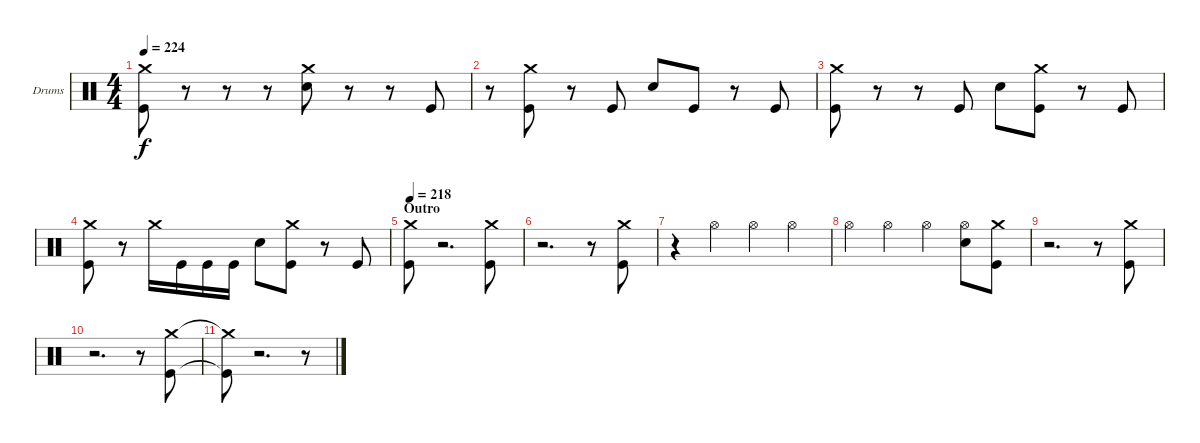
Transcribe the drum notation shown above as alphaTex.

\bracketExtendMode groupsimilarinstruments
\firstSystemTrackNameOrientation horizontal
\otherSystemsTrackNameOrientation horizontal
\track ("Drumkit" "Drums") {instrument percussion}
\staff {score}
\articulation defaults
\ts (4 4)
\tempo 224
\clef neutral
\ks c
("Crash medium (hit)" "Kick (hit)").8{dy f} r.8 r.8 r.8 ("Crash medium (hit)" "Snare (hit) 2").8 r.8 r.8 "Kick (hit)".8 |
r.8 ("Crash medium (hit)" "Kick (hit)").8 r.8 "Kick (hit)".8 "Snare (hit) 2".8 "Kick (hit)".8 r.8 "Kick (hit)".8 |
("Crash medium (hit)" "Kick (hit)").8 r.8 r.8 "Kick (hit)".8 "Snare (hit) 2".8 ("Crash medium (hit)" "Kick (hit)").8 r.8 "Kick (hit)".8 |
("Crash medium (hit)" "Kick (hit)").8 r.8 "Crash medium (hit)".16 "Kick (hit)".16 "Kick (hit)".16 "Kick (hit)".16 "Snare (hit) 2".8 ("Crash medium (hit)" "Kick (hit)").8 r.8 "Kick (hit)".8 |
\section ("" "Outro")
\tempo (218 0.00625)
("Kick (hit)" "Crash medium (hit)").8 r.2{d} ("Crash medium (hit)" "Kick (hit)").8 |
r.2{d} r.8 ("Crash medium (hit)" "Kick (hit)").8 |
r.4 "Hi-Hat (open)".4 "Hi-Hat (open)".4 "Hi-Hat (open)".4 |
"Hi-Hat (open)".4 "Hi-Hat (open)".4 "Hi-Hat (open)".4 ("Hi-Hat (open)" "Snare (hit) 2").8 ("Crash medium (hit)" "Kick (hit)").8 |
r.2{d} r.8 ("Crash medium (hit)" "Kick (hit)").8 |
r.2{d} r.8 ("Crash medium (hit)" "Kick (hit)").8 |
("Crash medium (hit)"{t} "Kick (hit)"{t}).8 r.2{d} r.8
